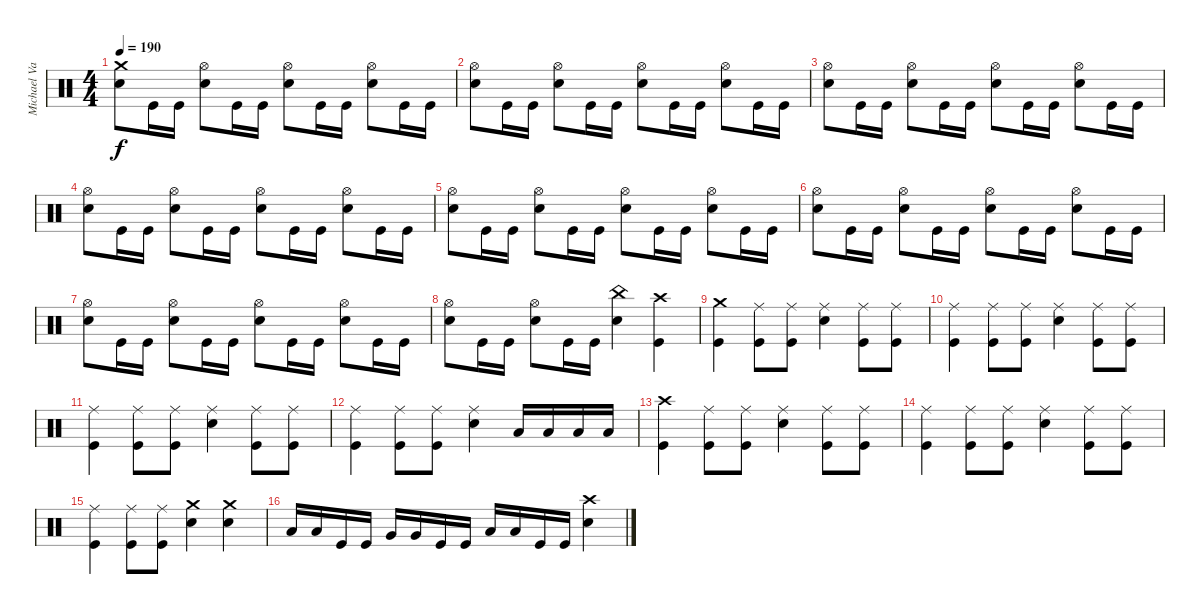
\track ("Michael VanDyne" "Michael Va") {instrument percussion}
\staff {score}
\articulation defaults
\ts (4 4)
\tempo 190
\clef neutral
\ks c
("Crash medium (hit)" "Electric Snare (hit)").8{dy f} "Kick (hit)".16 "Kick (hit)".16 ("Hi-Hat (open)" "Electric Snare (hit)").8 "Kick (hit)".16 "Kick (hit)".16 ("Hi-Hat (open)" "Electric Snare (hit)").8 "Kick (hit)".16 "Kick (hit)".16 ("Hi-Hat (open)" "Electric Snare (hit)").8 "Kick (hit)".16 "Kick (hit)".16 |
("Hi-Hat (open)" "Electric Snare (hit)").8 "Kick (hit)".16 "Kick (hit)".16 ("Hi-Hat (open)" "Electric Snare (hit)").8 "Kick (hit)".16 "Kick (hit)".16 ("Hi-Hat (open)" "Electric Snare (hit)").8 "Kick (hit)".16 "Kick (hit)".16 ("Hi-Hat (open)" "Electric Snare (hit)").8 "Kick (hit)".16 "Kick (hit)".16 |
("Hi-Hat (open)" "Electric Snare (hit)").8 "Kick (hit)".16 "Kick (hit)".16 ("Hi-Hat (open)" "Electric Snare (hit)").8 "Kick (hit)".16 "Kick (hit)".16 ("Hi-Hat (open)" "Electric Snare (hit)").8 "Kick (hit)".16 "Kick (hit)".16 ("Hi-Hat (open)" "Electric Snare (hit)").8 "Kick (hit)".16 "Kick (hit)".16 |
("Hi-Hat (open)" "Electric Snare (hit)").8 "Kick (hit)".16 "Kick (hit)".16 ("Hi-Hat (open)" "Electric Snare (hit)").8 "Kick (hit)".16 "Kick (hit)".16 ("Hi-Hat (open)" "Electric Snare (hit)").8 "Kick (hit)".16 "Kick (hit)".16 ("Hi-Hat (open)" "Electric Snare (hit)").8 "Kick (hit)".16 "Kick (hit)".16 |
("Hi-Hat (open)" "Electric Snare (hit)").8 "Kick (hit)".16 "Kick (hit)".16 ("Hi-Hat (open)" "Electric Snare (hit)").8 "Kick (hit)".16 "Kick (hit)".16 ("Hi-Hat (open)" "Electric Snare (hit)").8 "Kick (hit)".16 "Kick (hit)".16 ("Hi-Hat (open)" "Electric Snare (hit)").8 "Kick (hit)".16 "Kick (hit)".16 |
("Hi-Hat (open)" "Electric Snare (hit)").8 "Kick (hit)".16 "Kick (hit)".16 ("Hi-Hat (open)" "Electric Snare (hit)").8 "Kick (hit)".16 "Kick (hit)".16 ("Hi-Hat (open)" "Electric Snare (hit)").8 "Kick (hit)".16 "Kick (hit)".16 ("Hi-Hat (open)" "Electric Snare (hit)").8 "Kick (hit)".16 "Kick (hit)".16 |
("Hi-Hat (open)" "Electric Snare (hit)").8 "Kick (hit)".16 "Kick (hit)".16 ("Hi-Hat (open)" "Electric Snare (hit)").8 "Kick (hit)".16 "Kick (hit)".16 ("Hi-Hat (open)" "Electric Snare (hit)").8 "Kick (hit)".16 "Kick (hit)".16 ("Hi-Hat (open)" "Electric Snare (hit)").8 "Kick (hit)".16 "Kick (hit)".16 |
("Hi-Hat (open)" "Electric Snare (hit)").8 "Kick (hit)".16 "Kick (hit)".16 ("Hi-Hat (open)" "Electric Snare (hit)").8 "Kick (hit)".16 "Kick (hit)".16 ("China (hit)" "Electric Snare (hit)").4 ("Crash high (hit)" "Kick (hit)").4 |
("Crash medium (hit)" "Kick (hit)").4 ("Ride (middle)" "Kick (hit)").8 ("Ride (middle)" "Kick (hit)").8 ("Ride (middle)" "Electric Snare (hit)").4 ("Ride (middle)" "Kick (hit)").8 ("Ride (middle)" "Kick (hit)").8 |
("Ride (middle)" "Kick (hit)").4 ("Ride (middle)" "Kick (hit)").8 ("Ride (middle)" "Kick (hit)").8 ("Ride (middle)" "Electric Snare (hit)").4 ("Ride (middle)" "Kick (hit)").8 ("Ride (middle)" "Kick (hit)").8 |
("Ride (middle)" "Kick (hit)").4 ("Ride (middle)" "Kick (hit)").8 ("Ride (middle)" "Kick (hit)").8 ("Ride (middle)" "Electric Snare (hit)").4 ("Ride (middle)" "Kick (hit)").8 ("Ride (middle)" "Kick (hit)").8 |
("Ride (middle)" "Kick (hit)").4 ("Ride (middle)" "Kick (hit)").8 ("Ride (middle)" "Kick (hit)").8 ("Ride (middle)" "Electric Snare (hit)").4 "Low Tom (hit)".16 "Low Tom (hit)".16 "Low Tom (hit)".16 "Low Tom (hit)".16 |
("Crash high (hit)" "Kick (hit)").4 ("Ride (middle)" "Kick (hit)").8 ("Ride (middle)" "Kick (hit)").8 ("Ride (middle)" "Electric Snare (hit)").4 ("Ride (middle)" "Kick (hit)").8 ("Ride (middle)" "Kick (hit)").8 |
("Ride (middle)" "Kick (hit)").4 ("Ride (middle)" "Kick (hit)").8 ("Ride (middle)" "Kick (hit)").8 ("Ride (middle)" "Electric Snare (hit)").4 ("Ride (middle)" "Kick (hit)").8 ("Ride (middle)" "Kick (hit)").8 |
("Ride (middle)" "Kick (hit)").4 ("Ride (middle)" "Kick (hit)").8 ("Ride (middle)" "Kick (hit)").8 ("Crash medium (hit)" "Electric Snare (hit)").4 ("Crash medium (hit)" "Electric Snare (hit)").4 |
"Low Tom (hit)".16 "Low Tom (hit)".16 "Kick (hit)".16 "Kick (hit)".16 "Very Low Tom (hit)".16 "Very Low Tom (hit)".16 "Kick (hit)".16 "Kick (hit)".16 "Low Floor Tom (hit)".16 "Low Floor Tom (hit)".16 "Kick (hit)".16 "Kick (hit)".16 ("Crash high (hit)" "Electric Snare (hit)").4
